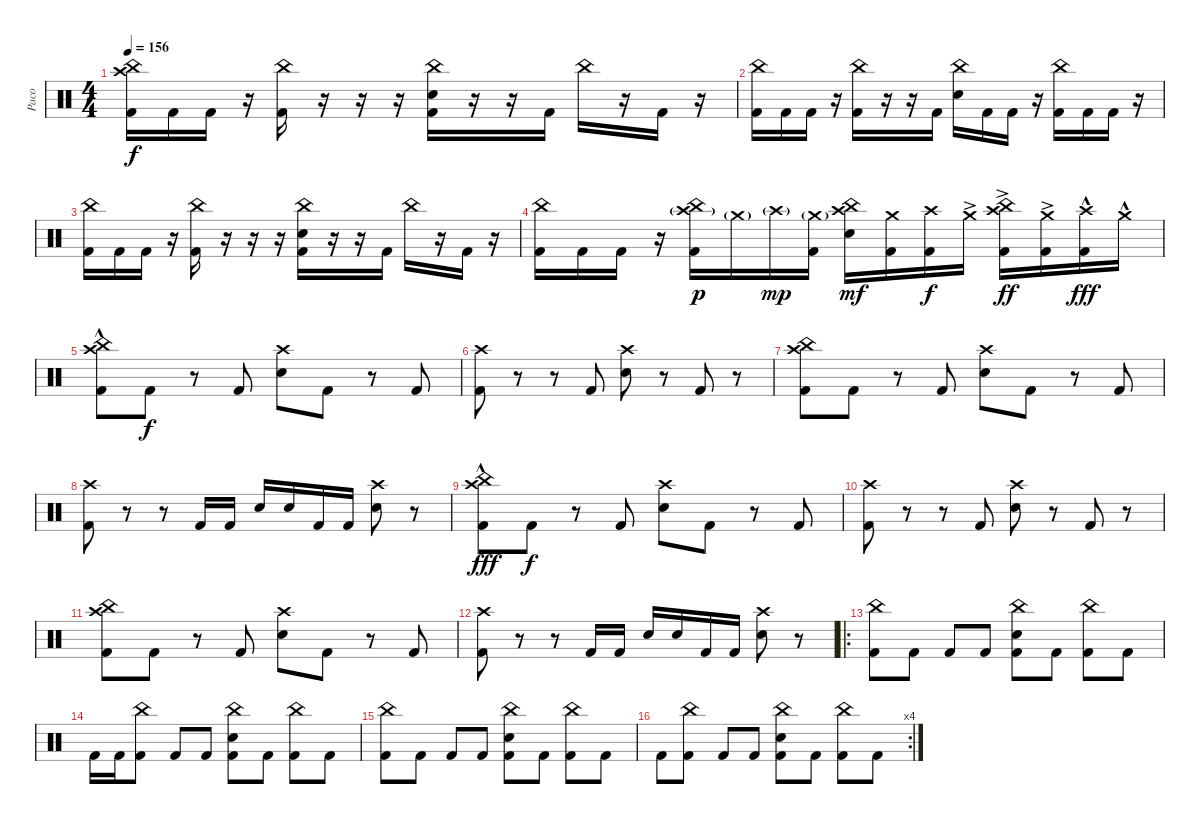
\track ("Paco" "Paco") {instrument percussion}
\staff {score}
\articulation defaults
\ts (4 4)
\tempo 156
\clef neutral
\ks c
("China (hit)" "Crash high (hit)" "Kick (hit) 2").16{dy f} "Kick (hit) 2".16 "Kick (hit) 2".16 r.16 ("China (hit)" "Kick (hit) 2").16 r.16 r.16 r.16 ("China (hit)" "Electric Snare (hit)" "Kick (hit) 2").16 r.16 r.16 "Kick (hit) 2".16 "China (hit)".16 r.16 "Kick (hit) 2".16 r.16 |
("China (hit)" "Kick (hit) 2").16 "Kick (hit) 2".16 "Kick (hit) 2".16 r.16 ("China (hit)" "Kick (hit) 2").16 r.16 r.16 "Kick (hit) 2".16 ("China (hit)" "Electric Snare (hit)").16 "Kick (hit) 2".16 "Kick (hit) 2".16 r.16 ("China (hit)" "Kick (hit) 2").16 "Kick (hit) 2".16 "Kick (hit) 2".16 r.16 |
("China (hit)" "Kick (hit) 2").16 "Kick (hit) 2".16 "Kick (hit) 2".16 r.16 ("China (hit)" "Kick (hit) 2").16 r.16 r.16 r.16 ("China (hit)" "Electric Snare (hit)" "Kick (hit) 2").16 r.16 r.16 "Kick (hit) 2".16 "China (hit)".16 r.16 "Kick (hit) 2".16 r.16 |
("China (hit)" "Kick (hit) 2").16 "Kick (hit) 2".16 "Kick (hit) 2".16 r.16 ("China (hit)" "Crash high (hit)"{g} "Kick (hit) 2").16{dy p} "Crash medium (hit)"{g}.16 "Crash high (hit)"{g}.16{dy mp} ("Crash medium (hit)"{g} "Kick (hit) 2").16 ("China (hit)" "Crash high (hit)" "Electric Snare (hit)").16{dy mf} ("Crash medium (hit)" "Kick (hit) 2").16 ("Crash high (hit)" "Kick (hit) 2").16{dy f} "Crash medium (hit)"{ac}.16 ("China (hit)" "Crash high (hit)"{ac} "Kick (hit) 2").16{dy ff} ("Crash medium (hit)"{ac} "Kick (hit) 2").16 ("Crash high (hit)"{hac} "Kick (hit) 2").16{dy fff} "Crash medium (hit)"{hac}.16 |
("Crash high (hit)"{hac} "China (hit)" "Kick (hit) 2").8 "Kick (hit) 2".8{dy f} r.8 "Kick (hit) 2".8 ("Crash high (hit)" "Electric Snare (hit)").8 "Kick (hit) 2".8 r.8 "Kick (hit) 2".8 |
("Crash high (hit)" "Kick (hit) 2").8 r.8 r.8 "Kick (hit) 2".8 ("Crash high (hit)" "Electric Snare (hit)").8 r.8 "Kick (hit) 2".8 r.8 |
("Crash high (hit)" "China (hit)" "Kick (hit) 2").8 "Kick (hit) 2".8 r.8 "Kick (hit) 2".8 ("Crash high (hit)" "Electric Snare (hit)").8 "Kick (hit) 2".8 r.8 "Kick (hit) 2".8 |
("Crash high (hit)" "Kick (hit) 2").8 r.8 r.8 "Kick (hit) 2".16 "Kick (hit) 2".16 "Electric Snare (hit)".16 "Electric Snare (hit)".16 "Kick (hit) 2".16 "Kick (hit) 2".16 ("Crash high (hit)" "Electric Snare (hit)").8 r.8 |
("Crash high (hit)"{hac} "China (hit)" "Kick (hit) 2").8{dy fff} "Kick (hit) 2".8{dy f} r.8 "Kick (hit) 2".8 ("Crash high (hit)" "Electric Snare (hit)").8 "Kick (hit) 2".8 r.8 "Kick (hit) 2".8 |
("Crash high (hit)" "Kick (hit) 2").8 r.8 r.8 "Kick (hit) 2".8 ("Crash high (hit)" "Electric Snare (hit)").8 r.8 "Kick (hit) 2".8 r.8 |
("Crash high (hit)" "China (hit)" "Kick (hit) 2").8 "Kick (hit) 2".8 r.8 "Kick (hit) 2".8 ("Crash high (hit)" "Electric Snare (hit)").8 "Kick (hit) 2".8 r.8 "Kick (hit) 2".8 |
("Crash high (hit)" "Kick (hit) 2").8 r.8 r.8 "Kick (hit) 2".16 "Kick (hit) 2".16 "Electric Snare (hit)".16 "Electric Snare (hit)".16 "Kick (hit) 2".16 "Kick (hit) 2".16 ("Crash high (hit)" "Electric Snare (hit)").8 r.8 |
\ro
("China (hit)" "Kick (hit) 2").8 "Kick (hit) 2".8 "Kick (hit) 2".8 "Kick (hit) 2".8 ("China (hit)" "Electric Snare (hit)" "Kick (hit) 2").8 "Kick (hit) 2".8 ("China (hit)" "Kick (hit) 2").8 "Kick (hit) 2".8 |
"Kick (hit) 2".16 "Kick (hit) 2".16 ("China (hit)" "Kick (hit) 2").8 "Kick (hit) 2".8 "Kick (hit) 2".8 ("China (hit)" "Electric Snare (hit)" "Kick (hit) 2").8 "Kick (hit) 2".8 ("China (hit)" "Kick (hit) 2").8 "Kick (hit) 2".8 |
("China (hit)" "Kick (hit) 2").8 "Kick (hit) 2".8 "Kick (hit) 2".8 "Kick (hit) 2".8 ("China (hit)" "Electric Snare (hit)" "Kick (hit) 2").8 "Kick (hit) 2".8 ("China (hit)" "Kick (hit) 2").8 "Kick (hit) 2".8 |
\rc 4 "Kick (hit) 2".8
("China (hit)" "Kick (hit) 2").8 "Kick (hit) 2".8 "Kick (hit) 2".8 ("China (hit)" "Electric Snare (hit)" "Kick (hit) 2").8 "Kick (hit) 2".8 ("China (hit)" "Kick (hit) 2").8 "Kick (hit) 2".8
